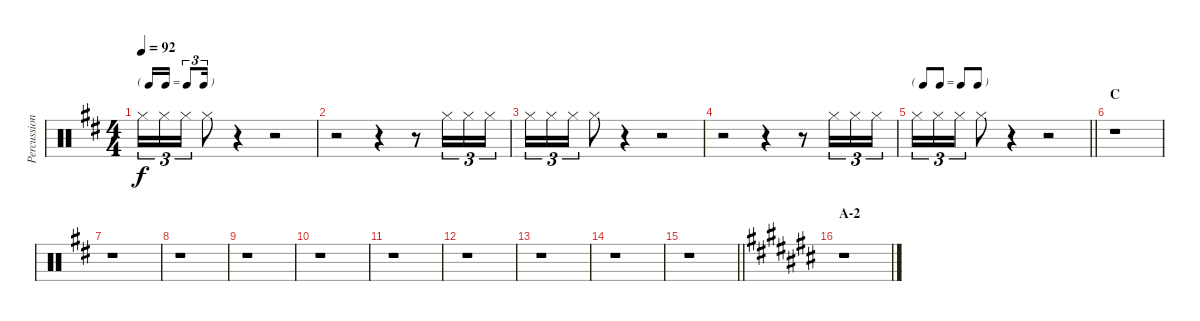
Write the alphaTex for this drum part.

\track ("Percussion" "Percussion") {instrument percussion}
\staff {score}
\articulation defaults
\ts (4 4)
\tf triplet16th
\tempo 92
\clef neutral
\ks d "Hi-Hat (closed)".16{tu (3 2) dy f} "Hi-Hat (closed)".16{tu (3 2)} "Hi-Hat (closed)".16{tu (3 2)} "Hi-Hat (closed)".8
r.4 r.2 |
r.2 r.4 r.8 "Hi-Hat (closed)".16{tu (3 2)} "Hi-Hat (closed)".16{tu (3 2)} "Hi-Hat (closed)".16{tu (3 2)} |
"Hi-Hat (closed)".16{tu (3 2)} "Hi-Hat (closed)".16{tu (3 2)} "Hi-Hat (closed)".16{tu (3 2)} "Hi-Hat (closed)".8 r.4 r.2 |
r.2 r.4 r.8 "Hi-Hat (closed)".16{tu (3 2)} "Hi-Hat (closed)".16{tu (3 2)} "Hi-Hat (closed)".16{tu (3 2)} |
\tf none
\barLineRight lightlight "Hi-Hat (closed)".16{tu (3 2)} "Hi-Hat (closed)".16{tu (3 2)} "Hi-Hat (closed)".16{tu (3 2)} "Hi-Hat (closed)".8
r.4 r.2 |
\section ("" "C")
r.1 |
r.1 |
r.1 |
r.1 |
r.1 |
r.1 |
r.1 |
r.1 |
r.1 |
\barLineRight lightlight
r.1 |
\section ("" "A-2")
\ks c#
r.1
